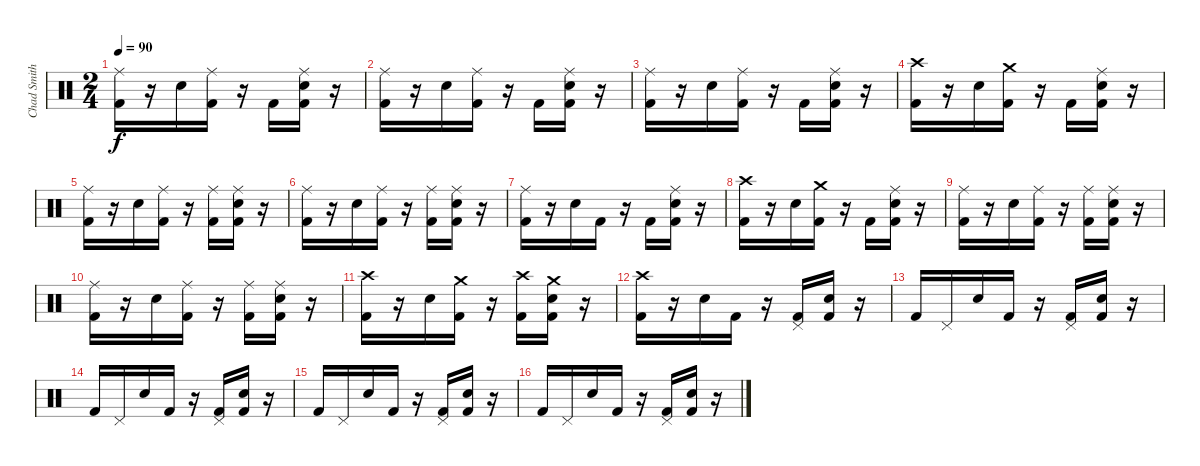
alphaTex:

\track ("Chad Smith" "Chad Smith") {instrument percussion}
\staff {score}
\articulation defaults
\ts (2 4)
\tempo 90
\clef neutral
\ks c
("Ride (middle)" "Kick (hit) 2").16{dy f} r.16 "Electric Snare (hit)".16 ("Ride (middle)" "Kick (hit) 2").16 r.16 "Kick (hit) 2".16 ("Ride (middle)" "Electric Snare (hit)" "Kick (hit) 2").16 r.16 |
("Ride (middle)" "Kick (hit) 2").16 r.16 "Electric Snare (hit)".16 ("Ride (middle)" "Kick (hit) 2").16 r.16 "Kick (hit) 2".16 ("Ride (middle)" "Electric Snare (hit)" "Kick (hit) 2").16 r.16 |
("Ride (middle)" "Kick (hit) 2").16 r.16 "Electric Snare (hit)".16 ("Ride (middle)" "Kick (hit) 2").16 r.16 "Kick (hit) 2".16 ("Ride (middle)" "Electric Snare (hit)" "Kick (hit) 2").16 r.16 |
("Crash high (hit)" "Kick (hit) 2").16 r.16 "Electric Snare (hit)".16 ("Crash medium (hit)" "Kick (hit) 2").16 r.16 "Kick (hit) 2".16 ("Ride (middle)" "Electric Snare (hit)" "Kick (hit) 2").16 r.16 |
("Ride (middle)" "Kick (hit) 2").16 r.16 "Electric Snare (hit)".16 ("Ride (middle)" "Kick (hit) 2").16 r.16 ("Ride (middle)" "Kick (hit) 2").16 ("Ride (middle)" "Electric Snare (hit)" "Kick (hit) 2").16 r.16 |
("Ride (middle)" "Kick (hit) 2").16 r.16 "Electric Snare (hit)".16 ("Ride (middle)" "Kick (hit) 2").16 r.16 ("Ride (middle)" "Kick (hit) 2").16 ("Ride (middle)" "Electric Snare (hit)" "Kick (hit) 2").16 r.16 |
("Ride (middle)" "Kick (hit) 2").16 r.16 "Electric Snare (hit)".16 "Kick (hit) 2".16 r.16 "Kick (hit) 2".16 ("Ride (middle)" "Electric Snare (hit)" "Kick (hit) 2").16 r.16 |
("Crash high (hit)" "Kick (hit) 2").16 r.16 "Electric Snare (hit)".16 ("Crash medium (hit)" "Kick (hit) 2").16 r.16 "Kick (hit) 2".16 ("Ride (middle)" "Electric Snare (hit)" "Kick (hit) 2").16 r.16 |
("Ride (middle)" "Kick (hit) 2").16 r.16 "Electric Snare (hit)".16 ("Ride (middle)" "Kick (hit) 2").16 r.16 ("Ride (middle)" "Kick (hit) 2").16 ("Ride (middle)" "Electric Snare (hit)" "Kick (hit) 2").16 r.16 |
("Ride (middle)" "Kick (hit) 2").16 r.16 "Electric Snare (hit)".16 ("Ride (middle)" "Kick (hit) 2").16 r.16 ("Ride (middle)" "Kick (hit) 2").16 ("Ride (middle)" "Electric Snare (hit)" "Kick (hit) 2").16 r.16 |
("Crash high (hit)" "Kick (hit) 2").16 r.16 "Electric Snare (hit)".16 ("Crash medium (hit)" "Kick (hit) 2").16 r.16 ("Crash high (hit)" "Kick (hit) 2").16 ("Crash medium (hit)" "Electric Snare (hit)" "Kick (hit) 2").16 r.16 |
("Crash high (hit)" "Kick (hit) 2").16 r.16 "Electric Snare (hit)".16 "Kick (hit) 2".16 r.16 ("Pedal Hi-Hat (hit)" "Kick (hit) 2").16 ("Electric Snare (hit)" "Kick (hit) 2").16 r.16 |
"Kick (hit) 2".16 "Pedal Hi-Hat (hit)".16 "Electric Snare (hit)".16 "Kick (hit) 2".16 r.16 ("Pedal Hi-Hat (hit)" "Kick (hit) 2").16 ("Electric Snare (hit)" "Kick (hit) 2").16 r.16 |
"Kick (hit) 2".16 "Pedal Hi-Hat (hit)".16 "Electric Snare (hit)".16 "Kick (hit) 2".16 r.16 ("Pedal Hi-Hat (hit)" "Kick (hit) 2").16 ("Electric Snare (hit)" "Kick (hit) 2").16 r.16 |
"Kick (hit) 2".16 "Pedal Hi-Hat (hit)".16 "Electric Snare (hit)".16 "Kick (hit) 2".16 r.16 ("Pedal Hi-Hat (hit)" "Kick (hit) 2").16 ("Electric Snare (hit)" "Kick (hit) 2").16 r.16 |
"Kick (hit) 2".16 "Pedal Hi-Hat (hit)".16 "Electric Snare (hit)".16 "Kick (hit) 2".16 r.16 ("Pedal Hi-Hat (hit)" "Kick (hit) 2").16 ("Electric Snare (hit)" "Kick (hit) 2").16 r.16
